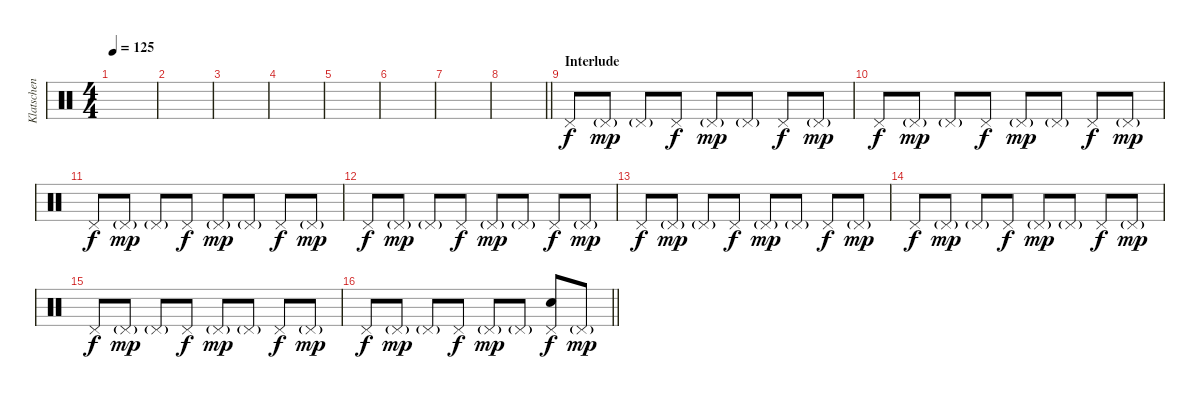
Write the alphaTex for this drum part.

\track ("Klatschen" "Klatschen") {instrument percussion}
\staff {score}
\articulation defaults
\ts (4 4)
\tempo 125
\clef neutral
\ks c
|
|
|
|
|
|
|
\barLineRight lightlight
|
\section ("" "Interlude")
"Pedal Hi-Hat (hit)".8{dy f} "Pedal Hi-Hat (hit)"{g}.8{dy mp} "Pedal Hi-Hat (hit)"{g}.8 "Pedal Hi-Hat (hit)".8{dy f} "Pedal Hi-Hat (hit)"{g}.8{dy mp} "Pedal Hi-Hat (hit)"{g}.8 "Pedal Hi-Hat (hit)".8{dy f} "Pedal Hi-Hat (hit)"{g}.8{dy mp} |
"Pedal Hi-Hat (hit)".8{dy f} "Pedal Hi-Hat (hit)"{g}.8{dy mp} "Pedal Hi-Hat (hit)"{g}.8 "Pedal Hi-Hat (hit)".8{dy f} "Pedal Hi-Hat (hit)"{g}.8{dy mp} "Pedal Hi-Hat (hit)"{g}.8 "Pedal Hi-Hat (hit)".8{dy f} "Pedal Hi-Hat (hit)"{g}.8{dy mp} |
"Pedal Hi-Hat (hit)".8{dy f} "Pedal Hi-Hat (hit)"{g}.8{dy mp} "Pedal Hi-Hat (hit)"{g}.8 "Pedal Hi-Hat (hit)".8{dy f} "Pedal Hi-Hat (hit)"{g}.8{dy mp} "Pedal Hi-Hat (hit)"{g}.8 "Pedal Hi-Hat (hit)".8{dy f} "Pedal Hi-Hat (hit)"{g}.8{dy mp} |
"Pedal Hi-Hat (hit)".8{dy f} "Pedal Hi-Hat (hit)"{g}.8{dy mp} "Pedal Hi-Hat (hit)"{g}.8 "Pedal Hi-Hat (hit)".8{dy f} "Pedal Hi-Hat (hit)"{g}.8{dy mp} "Pedal Hi-Hat (hit)"{g}.8 "Pedal Hi-Hat (hit)".8{dy f} "Pedal Hi-Hat (hit)"{g}.8{dy mp} |
"Pedal Hi-Hat (hit)".8{dy f} "Pedal Hi-Hat (hit)"{g}.8{dy mp} "Pedal Hi-Hat (hit)"{g}.8 "Pedal Hi-Hat (hit)".8{dy f} "Pedal Hi-Hat (hit)"{g}.8{dy mp} "Pedal Hi-Hat (hit)"{g}.8 "Pedal Hi-Hat (hit)".8{dy f} "Pedal Hi-Hat (hit)"{g}.8{dy mp} |
"Pedal Hi-Hat (hit)".8{dy f} "Pedal Hi-Hat (hit)"{g}.8{dy mp} "Pedal Hi-Hat (hit)"{g}.8 "Pedal Hi-Hat (hit)".8{dy f} "Pedal Hi-Hat (hit)"{g}.8{dy mp} "Pedal Hi-Hat (hit)"{g}.8 "Pedal Hi-Hat (hit)".8{dy f} "Pedal Hi-Hat (hit)"{g}.8{dy mp} |
"Pedal Hi-Hat (hit)".8{dy f} "Pedal Hi-Hat (hit)"{g}.8{dy mp} "Pedal Hi-Hat (hit)"{g}.8 "Pedal Hi-Hat (hit)".8{dy f} "Pedal Hi-Hat (hit)"{g}.8{dy mp} "Pedal Hi-Hat (hit)"{g}.8 "Pedal Hi-Hat (hit)".8{dy f} "Pedal Hi-Hat (hit)"{g}.8{dy mp} |
\barLineRight lightlight "Pedal Hi-Hat (hit)".8{dy f} "Pedal Hi-Hat (hit)"{g}.8{dy mp} "Pedal Hi-Hat (hit)"{g}.8 "Pedal Hi-Hat (hit)".8{dy f} "Pedal Hi-Hat (hit)"{g}.8{dy mp} "Pedal Hi-Hat (hit)"{g}.8
("Pedal Hi-Hat (hit)" "Hand Clap (hit)").8{dy f} "Pedal Hi-Hat (hit)"{g}.8{dy mp}
